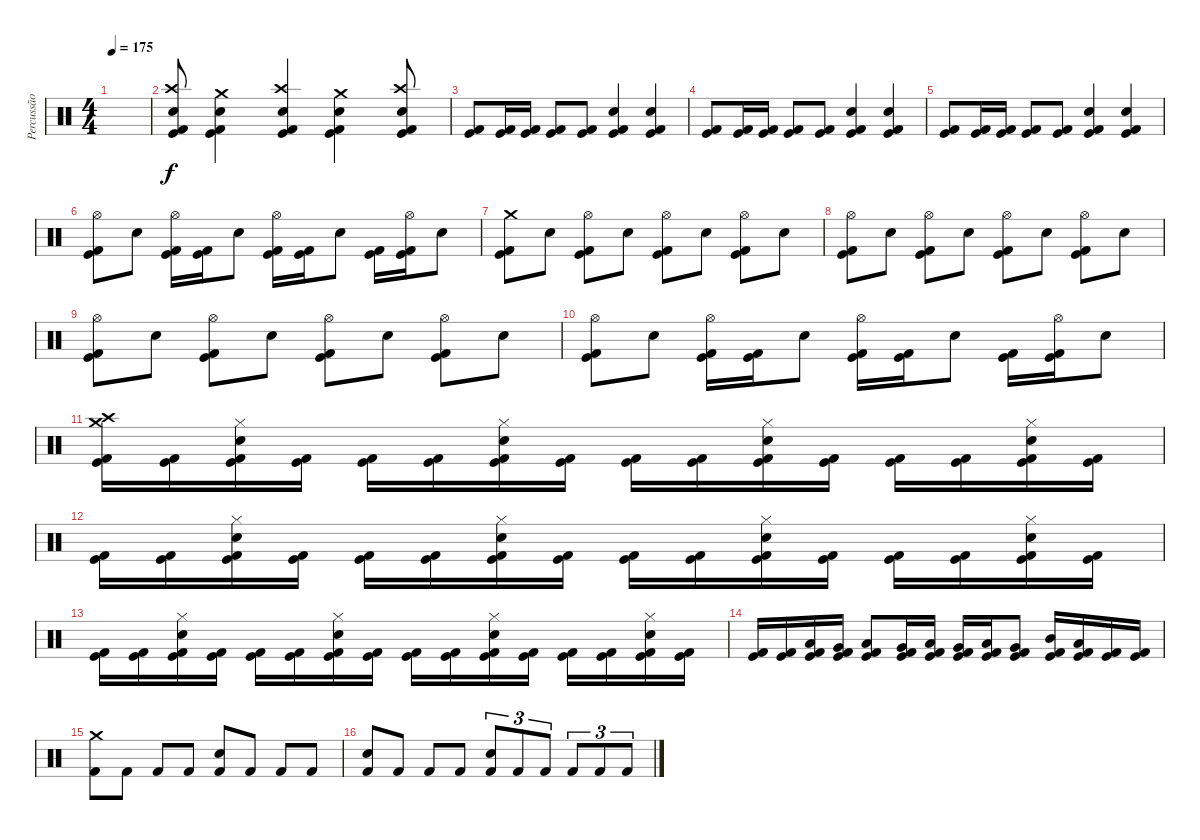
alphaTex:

\track ("Percussão" "Percussão") {instrument percussion}
\staff {score}
\articulation defaults
\ts (4 4)
\tempo 175
\clef neutral
\ks c
|
("Kick (hit) 2" "Kick (hit)" "Crash high (hit)" "Electric Snare (hit)").8 ("Kick (hit) 2" "Kick (hit)" "Crash medium (hit)" "Electric Snare (hit)").4 ("Kick (hit) 2" "Kick (hit)" "Crash high (hit)" "Electric Snare (hit)").4 ("Kick (hit) 2" "Kick (hit)" "Electric Snare (hit)" "Crash medium (hit)").4 ("Kick (hit) 2" "Kick (hit)" "Crash high (hit)" "Electric Snare (hit)").8 |
("Kick (hit) 2" "Kick (hit)").8 ("Kick (hit) 2" "Kick (hit)").16 ("Kick (hit) 2" "Kick (hit)").16 ("Kick (hit) 2" "Kick (hit)").8 ("Kick (hit) 2" "Kick (hit)").8 ("Kick (hit) 2" "Electric Snare (hit)" "Kick (hit)").4 ("Electric Snare (hit)" "Kick (hit) 2" "Kick (hit)").4 |
("Kick (hit) 2" "Kick (hit)").8 ("Kick (hit) 2" "Kick (hit)").16 ("Kick (hit) 2" "Kick (hit)").16 ("Kick (hit) 2" "Kick (hit)").8 ("Kick (hit) 2" "Kick (hit)").8 ("Kick (hit) 2" "Electric Snare (hit)" "Kick (hit)").4 ("Electric Snare (hit)" "Kick (hit) 2" "Kick (hit)").4 |
("Kick (hit) 2" "Kick (hit)").8 ("Kick (hit) 2" "Kick (hit)").16 ("Kick (hit) 2" "Kick (hit)").16 ("Kick (hit) 2" "Kick (hit)").8 ("Kick (hit) 2" "Kick (hit)").8 ("Kick (hit) 2" "Electric Snare (hit)" "Kick (hit)").4 ("Electric Snare (hit)" "Kick (hit) 2" "Kick (hit)").4 |
("Hi-Hat (open)" "Kick (hit) 2" "Kick (hit)").8 "Electric Snare (hit)".8 ("Hi-Hat (open)" "Kick (hit) 2" "Kick (hit)").16 ("Kick (hit) 2" "Kick (hit)").16 "Electric Snare (hit)".8 ("Hi-Hat (open)" "Kick (hit) 2" "Kick (hit)").16 ("Kick (hit)" "Kick (hit) 2").16 "Electric Snare (hit)".8 ("Kick (hit)" "Kick (hit) 2").16 ("Hi-Hat (open)" "Kick (hit) 2" "Kick (hit)").16 "Electric Snare (hit)".8 |
("Crash medium (hit)" "Kick (hit) 2" "Kick (hit)").8 "Electric Snare (hit)".8 ("Hi-Hat (open)" "Kick (hit) 2" "Kick (hit)").8 "Electric Snare (hit)".8 ("Hi-Hat (open)" "Kick (hit) 2" "Kick (hit)").8 "Electric Snare (hit)".8 ("Hi-Hat (open)" "Kick (hit) 2" "Kick (hit)").8 "Electric Snare (hit)".8 |
("Hi-Hat (open)" "Kick (hit) 2" "Kick (hit)").8 "Electric Snare (hit)".8 ("Hi-Hat (open)" "Kick (hit) 2" "Kick (hit)").8 "Electric Snare (hit)".8 ("Hi-Hat (open)" "Kick (hit) 2" "Kick (hit)").8 "Electric Snare (hit)".8 ("Hi-Hat (open)" "Kick (hit) 2" "Kick (hit)").8 "Electric Snare (hit)".8 |
("Hi-Hat (open)" "Kick (hit) 2" "Kick (hit)").8 "Electric Snare (hit)".8 ("Hi-Hat (open)" "Kick (hit) 2" "Kick (hit)").8 "Electric Snare (hit)".8 ("Hi-Hat (open)" "Kick (hit) 2" "Kick (hit)").8 "Electric Snare (hit)".8 ("Hi-Hat (open)" "Kick (hit) 2" "Kick (hit)").8 "Electric Snare (hit)".8 |
("Hi-Hat (open)" "Kick (hit) 2" "Kick (hit)").8 "Electric Snare (hit)".8 ("Hi-Hat (open)" "Kick (hit) 2" "Kick (hit)").16 ("Kick (hit) 2" "Kick (hit)").16 "Electric Snare (hit)".8 ("Hi-Hat (open)" "Kick (hit) 2" "Kick (hit)").16 ("Kick (hit)" "Kick (hit) 2").16 "Electric Snare (hit)".8 ("Kick (hit)" "Kick (hit) 2").16 ("Hi-Hat (open)" "Kick (hit) 2" "Kick (hit)").16 "Electric Snare (hit)".8 |
("Crash high (hit)" "Crash medium (hit)" "Kick (hit)" "Kick (hit) 2").16 ("Kick (hit)" "Kick (hit) 2").16 ("Hi-Hat (closed)" "Electric Snare (hit)" "Kick (hit)" "Kick (hit) 2").16 ("Kick (hit)" "Kick (hit) 2").16 ("Kick (hit)" "Kick (hit) 2").16 ("Kick (hit)" "Kick (hit) 2").16 ("Hi-Hat (closed)" "Electric Snare (hit)" "Kick (hit)" "Kick (hit) 2").16 ("Kick (hit)" "Kick (hit) 2").16 ("Kick (hit)" "Kick (hit) 2").16 ("Kick (hit)" "Kick (hit) 2").16 ("Hi-Hat (closed)" "Electric Snare (hit)" "Kick (hit)" "Kick (hit) 2").16 ("Kick (hit)" "Kick (hit) 2").16 ("Kick (hit)" "Kick (hit) 2").16 ("Kick (hit)" "Kick (hit) 2").16 ("Hi-Hat (closed)" "Electric Snare (hit)" "Kick (hit)" "Kick (hit) 2").16 ("Kick (hit)" "Kick (hit) 2").16 |
("Kick (hit)" "Kick (hit) 2").16 ("Kick (hit)" "Kick (hit) 2").16 ("Hi-Hat (closed)" "Electric Snare (hit)" "Kick (hit)" "Kick (hit) 2").16 ("Kick (hit)" "Kick (hit) 2").16 ("Kick (hit)" "Kick (hit) 2").16 ("Kick (hit)" "Kick (hit) 2").16 ("Hi-Hat (closed)" "Electric Snare (hit)" "Kick (hit)" "Kick (hit) 2").16 ("Kick (hit)" "Kick (hit) 2").16 ("Kick (hit)" "Kick (hit) 2").16 ("Kick (hit)" "Kick (hit) 2").16 ("Hi-Hat (closed)" "Electric Snare (hit)" "Kick (hit)" "Kick (hit) 2").16 ("Kick (hit)" "Kick (hit) 2").16 ("Kick (hit)" "Kick (hit) 2").16 ("Kick (hit)" "Kick (hit) 2").16 ("Hi-Hat (closed)" "Electric Snare (hit)" "Kick (hit)" "Kick (hit) 2").16 ("Kick (hit)" "Kick (hit) 2").16 |
("Kick (hit)" "Kick (hit) 2").16 ("Kick (hit)" "Kick (hit) 2").16 ("Hi-Hat (closed)" "Electric Snare (hit)" "Kick (hit)" "Kick (hit) 2").16 ("Kick (hit)" "Kick (hit) 2").16 ("Kick (hit)" "Kick (hit) 2").16 ("Kick (hit)" "Kick (hit) 2").16 ("Hi-Hat (closed)" "Electric Snare (hit)" "Kick (hit)" "Kick (hit) 2").16 ("Kick (hit)" "Kick (hit) 2").16 ("Kick (hit)" "Kick (hit) 2").16 ("Kick (hit)" "Kick (hit) 2").16 ("Hi-Hat (closed)" "Electric Snare (hit)" "Kick (hit)" "Kick (hit) 2").16 ("Kick (hit)" "Kick (hit) 2").16 ("Kick (hit)" "Kick (hit) 2").16 ("Kick (hit)" "Kick (hit) 2").16 ("Hi-Hat (closed)" "Electric Snare (hit)" "Kick (hit)" "Kick (hit) 2").16 ("Kick (hit)" "Kick (hit) 2").16 |
("Kick (hit) 2" "Kick (hit)").16 ("Kick (hit) 2" "Kick (hit)").16 ("Low Tom (hit)" "Kick (hit) 2" "Kick (hit)").16 ("Very Low Tom (hit)" "Kick (hit) 2" "Kick (hit)").16 ("Low Tom (hit)" "Kick (hit) 2" "Kick (hit)").8 ("Very Low Tom (hit)" "Kick (hit) 2" "Kick (hit)").16 ("Low Floor Tom (hit)" "Kick (hit) 2" "Kick (hit)").16 ("Very Low Tom (hit)" "Kick (hit) 2" "Kick (hit)").16 ("Low Tom (hit)" "Kick (hit) 2" "Kick (hit)").16 ("Very Low Tom (hit)" "Kick (hit) 2" "Kick (hit)").8 ("Mid Tom (hit)" "Kick (hit) 2" "Kick (hit)").16 ("Low Tom (hit)" "Kick (hit) 2" "Kick (hit)").16 ("Kick (hit) 2" "Kick (hit)").16 ("Kick (hit) 2" "Kick (hit)").16 |
("Kick (hit) 2" "Crash medium (hit)").8 "Kick (hit) 2".8 "Kick (hit) 2".8 "Kick (hit) 2".8 ("Kick (hit) 2" "Electric Snare (hit)").8 "Kick (hit) 2".8 "Kick (hit) 2".8 "Kick (hit) 2".8 |
("Kick (hit) 2" "Electric Snare (hit)").8 "Kick (hit) 2".8 "Kick (hit) 2".8 "Kick (hit) 2".8 ("Kick (hit) 2" "Electric Snare (hit)").8{tu (3 2)} "Kick (hit) 2".8{tu (3 2)} "Kick (hit) 2".8{tu (3 2)} "Kick (hit) 2".8{tu (3 2)} "Kick (hit) 2".8{tu (3 2)} "Kick (hit) 2".8{tu (3 2)}
